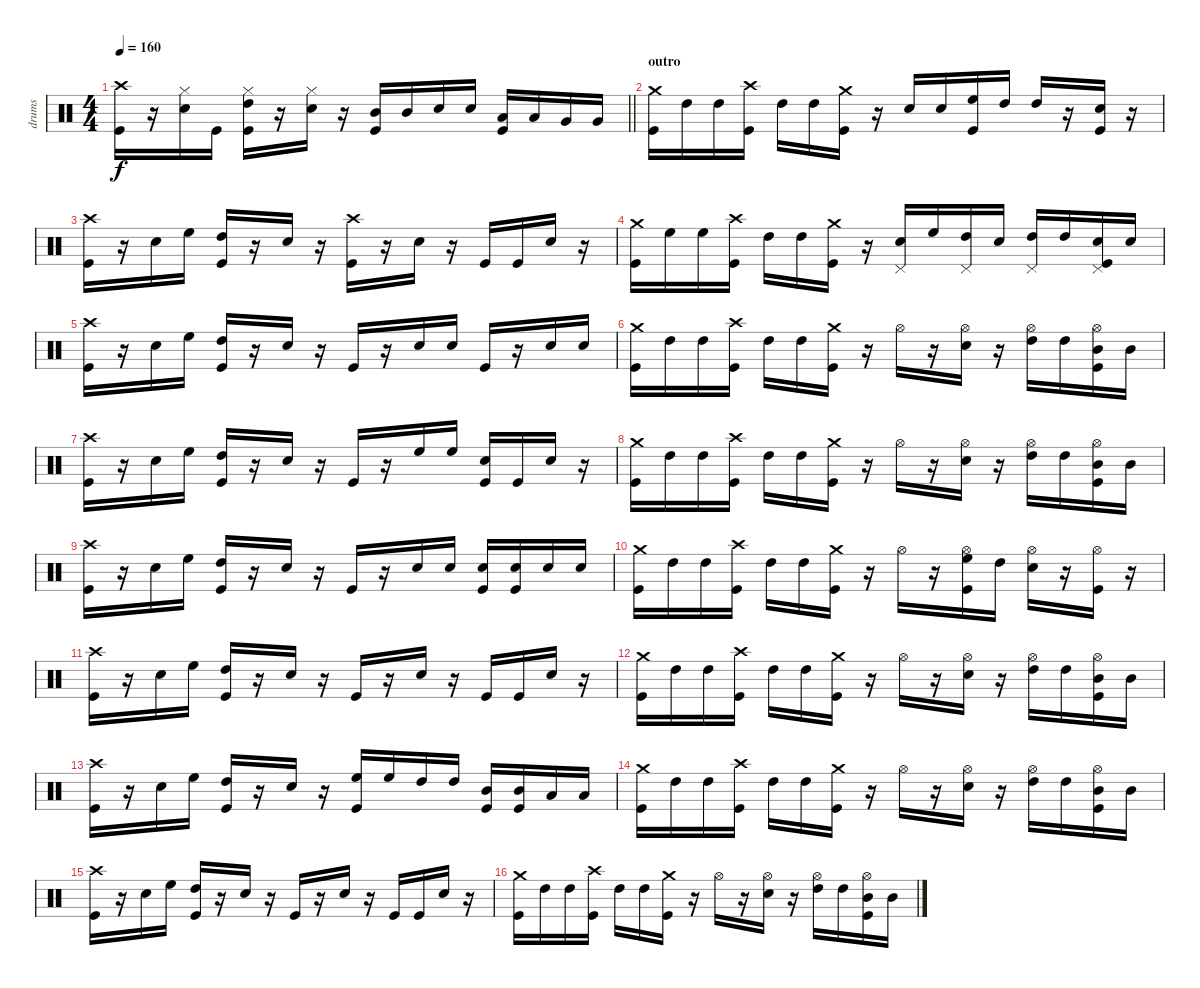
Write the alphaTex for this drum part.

\track ("drums" "drums") {instrument percussion}
\staff {score}
\articulation defaults
\ts (4 4)
\tempo 160
\clef neutral
\barLineRight lightlight
\ks c
("Crash high (hit)" "Kick (hit)").16{dy f} r.16 ("Hi-Hat (closed)" "Electric Snare (hit)").16 "Kick (hit)".16 ("Hi-Hat (closed)" "High Tom (hit)" "Kick (hit)").16 r.16 ("Hi-Hat (closed)" "Electric Snare (hit)").16 r.16 ("Mid Tom (hit)" "Kick (hit)").16 "Mid Tom (hit)".16 "Electric Snare (hit)".16 "Electric Snare (hit)".16 ("Low Tom (hit)" "Kick (hit)").16 "Low Tom (hit)".16 "Very Low Tom (hit)".16 "Very Low Tom (hit)".16 |
\section ("" "outro")
("Crash medium (hit)" "Kick (hit)").16 "High Tom (hit)".16 "High Tom (hit)".16 ("Crash high (hit)" "Kick (hit)").16 "High Tom (hit)".16 "High Tom (hit)".16 ("Crash medium (hit)" "Kick (hit)").16 r.16 "Electric Snare (hit)".16 "Electric Snare (hit)".16 ("High Floor Tom (hit)" "Kick (hit)").16 "High Tom (hit)".16 "High Tom (hit)".16 r.16 ("Electric Snare (hit)" "Kick (hit)").16 r.16 |
("Crash high (hit)" "Kick (hit)").16 r.16 "Electric Snare (hit)".16 "High Floor Tom (hit)".16 ("High Tom (hit)" "Kick (hit)").16 r.16 "Electric Snare (hit)".16 r.16 ("Crash high (hit)" "Kick (hit)").16 r.16 "Electric Snare (hit)".16 r.16 "Kick (hit)".16 "Kick (hit)".16 "Electric Snare (hit)".16 r.16 |
("Crash medium (hit)" "Kick (hit)").16 "High Floor Tom (hit)".16 "High Floor Tom (hit)".16 ("Crash high (hit)" "Kick (hit)").16 "High Tom (hit)".16 "High Tom (hit)".16 ("Crash medium (hit)" "Kick (hit)").16 r.16 ("Pedal Hi-Hat (hit)" "Electric Snare (hit)").16 "High Floor Tom (hit)".16 ("Pedal Hi-Hat (hit)" "High Tom (hit)").16 "Electric Snare (hit)".16 ("Pedal Hi-Hat (hit)" "High Tom (hit)").16 "High Tom (hit)".16 ("Pedal Hi-Hat (hit)" "Electric Snare (hit)" "Kick (hit)").16 "Electric Snare (hit)".16 |
("Crash high (hit)" "Kick (hit)").16 r.16 "Electric Snare (hit)".16 "High Floor Tom (hit)".16 ("High Tom (hit)" "Kick (hit)").16 r.16 "Electric Snare (hit)".16 r.16 "Kick (hit)".16 r.16 "Electric Snare (hit)".16 "Electric Snare (hit)".16 "Kick (hit)".16 r.16 "Electric Snare (hit)".16 "Electric Snare (hit)".16 |
("Crash medium (hit)" "Kick (hit)").16 "High Tom (hit)".16 "High Tom (hit)".16 ("Crash high (hit)" "Kick (hit)").16 "High Tom (hit)".16 "High Tom (hit)".16 ("Crash medium (hit)" "Kick (hit)").16 r.16 "Hi-Hat (open)".16 r.16 ("Hi-Hat (open)" "Electric Snare (hit)").16 r.16 ("Hi-Hat (open)" "High Tom (hit)").16 "High Tom (hit)".16 ("Hi-Hat (open)" "Mid Tom (hit)" "Kick (hit)").16 "Mid Tom (hit)".16 |
("Crash high (hit)" "Kick (hit)").16 r.16 "Electric Snare (hit)".16 "High Floor Tom (hit)".16 ("High Tom (hit)" "Kick (hit)").16 r.16 "Electric Snare (hit)".16 r.16 "Kick (hit)".16 r.16 "High Floor Tom (hit)".16 "High Floor Tom (hit)".16 ("Electric Snare (hit)" "Kick (hit)").16 "Kick (hit)".16 "Electric Snare (hit)".16 r.16 |
("Crash medium (hit)" "Kick (hit)").16 "High Tom (hit)".16 "High Tom (hit)".16 ("Crash high (hit)" "Kick (hit)").16 "High Tom (hit)".16 "High Tom (hit)".16 ("Crash medium (hit)" "Kick (hit)").16 r.16 "Hi-Hat (open)".16 r.16 ("Hi-Hat (open)" "Electric Snare (hit)").16 r.16 ("Hi-Hat (open)" "High Tom (hit)").16 "High Tom (hit)".16 ("Hi-Hat (open)" "Mid Tom (hit)" "Kick (hit)").16 "Mid Tom (hit)".16 |
("Crash high (hit)" "Kick (hit)").16 r.16 "Electric Snare (hit)".16 "High Floor Tom (hit)".16 ("High Tom (hit)" "Kick (hit)").16 r.16 "Electric Snare (hit)".16 r.16 "Kick (hit)".16 r.16 "Electric Snare (hit)".16 "Electric Snare (hit)".16 ("Electric Snare (hit)" "Kick (hit)").16 ("Electric Snare (hit)" "Kick (hit)").16 "Electric Snare (hit)".16 "Electric Snare (hit)".16 |
("Crash medium (hit)" "Kick (hit)").16 "High Tom (hit)".16 "High Tom (hit)".16 ("Crash high (hit)" "Kick (hit)").16 "High Tom (hit)".16 "High Tom (hit)".16 ("Crash medium (hit)" "Kick (hit)").16 r.16 "Hi-Hat (open)".16 r.16 ("Hi-Hat (open)" "High Floor Tom (hit)" "Kick (hit)").16 "High Tom (hit)".16 ("Hi-Hat (open)" "Electric Snare (hit)").16 r.16 ("Hi-Hat (open)" "Kick (hit)").16 r.16 |
("Crash high (hit)" "Kick (hit)").16 r.16 "Electric Snare (hit)".16 "High Floor Tom (hit)".16 ("High Tom (hit)" "Kick (hit)").16 r.16 "Electric Snare (hit)".16 r.16 "Kick (hit)".16 r.16 "Electric Snare (hit)".16 r.16 "Kick (hit)".16 "Kick (hit)".16 "Electric Snare (hit)".16 r.16 |
("Crash medium (hit)" "Kick (hit)").16 "High Tom (hit)".16 "High Tom (hit)".16 ("Crash high (hit)" "Kick (hit)").16 "High Tom (hit)".16 "High Tom (hit)".16 ("Crash medium (hit)" "Kick (hit)").16 r.16 "Hi-Hat (open)".16 r.16 ("Hi-Hat (open)" "Electric Snare (hit)").16 r.16 ("Hi-Hat (open)" "High Tom (hit)").16 "High Tom (hit)".16 ("Hi-Hat (open)" "Mid Tom (hit)" "Kick (hit)").16 "Mid Tom (hit)".16 |
("Crash high (hit)" "Kick (hit)").16 r.16 "Electric Snare (hit)".16 "High Floor Tom (hit)".16 ("High Tom (hit)" "Kick (hit)").16 r.16 "Electric Snare (hit)".16 r.16 ("High Floor Tom (hit)" "Kick (hit)").16 "High Floor Tom (hit)".16 "High Tom (hit)".16 "High Tom (hit)".16 ("Mid Tom (hit)" "Kick (hit)").16 ("Mid Tom (hit)" "Kick (hit)").16 "Low Tom (hit)".16 "Low Tom (hit)".16 |
("Crash medium (hit)" "Kick (hit)").16 "High Tom (hit)".16 "High Tom (hit)".16 ("Crash high (hit)" "Kick (hit)").16 "High Tom (hit)".16 "High Tom (hit)".16 ("Crash medium (hit)" "Kick (hit)").16 r.16 "Hi-Hat (open)".16 r.16 ("Hi-Hat (open)" "Electric Snare (hit)").16 r.16 ("Hi-Hat (open)" "High Tom (hit)").16 "High Tom (hit)".16 ("Hi-Hat (open)" "Mid Tom (hit)" "Kick (hit)").16 "Mid Tom (hit)".16 |
("Crash high (hit)" "Kick (hit)").16 r.16 "Electric Snare (hit)".16 "High Floor Tom (hit)".16 ("High Tom (hit)" "Kick (hit)").16 r.16 "Electric Snare (hit)".16 r.16 "Kick (hit)".16 r.16 "Electric Snare (hit)".16 r.16 "Kick (hit)".16 "Kick (hit)".16 "Electric Snare (hit)".16 r.16 |
("Crash medium (hit)" "Kick (hit)").16 "High Tom (hit)".16 "High Tom (hit)".16 ("Crash high (hit)" "Kick (hit)").16 "High Tom (hit)".16 "High Tom (hit)".16 ("Crash medium (hit)" "Kick (hit)").16 r.16 "Hi-Hat (open)".16 r.16 ("Hi-Hat (open)" "Electric Snare (hit)").16 r.16 ("Hi-Hat (open)" "High Tom (hit)").16 "High Tom (hit)".16 ("Hi-Hat (open)" "Mid Tom (hit)" "Kick (hit)").16 "Mid Tom (hit)".16
